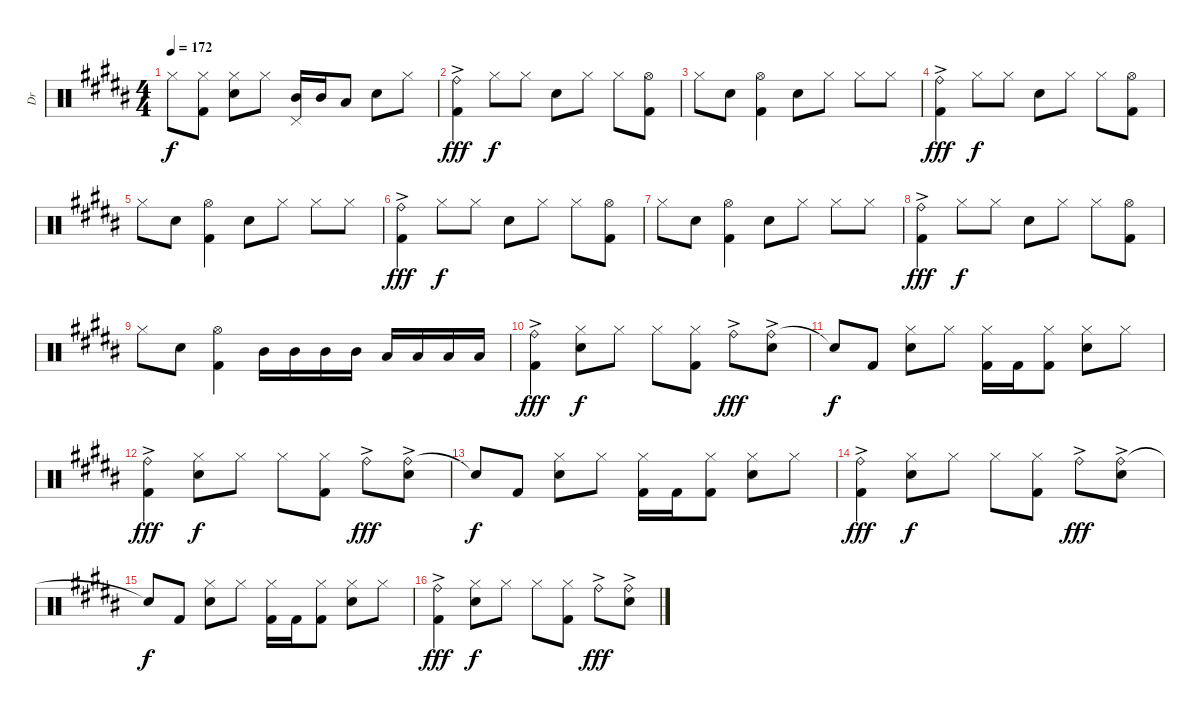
\track ("Dr" "Dr") {instrument percussion}
\staff {score}
\articulation defaults
\ts (4 4)
\tempo 172
\clef neutral
\ks b "Hi-Hat (closed)".8{dy f}
("Hi-Hat (closed)" "Kick (hit) 2").8 ("Hi-Hat (closed)" "Electric Snare (hit)").8 "Hi-Hat (closed)".8 ("Mid Tom (hit)" "Pedal Hi-Hat (hit)").16 "Mid Tom (hit)".16 "Low Tom (hit)".8 "Electric Snare (hit)".8 "Hi-Hat (closed)".8 |
("Ride (bell)"{ac} "Kick (hit) 2"{ac}).4{dy fff} "Hi-Hat (closed)".8{dy f} "Hi-Hat (closed)".8 "Electric Snare (hit)".8 "Hi-Hat (closed)".8 "Hi-Hat (closed)".8 ("Hi-Hat (open)" "Kick (hit) 2").8 |
"Hi-Hat (closed)".8 "Electric Snare (hit)".8 ("Hi-Hat (open)" "Kick (hit) 2").4 "Electric Snare (hit)".8 "Hi-Hat (closed)".8 "Hi-Hat (closed)".8 "Hi-Hat (closed)".8 |
("Ride (bell)"{ac} "Kick (hit) 2"{ac}).4{dy fff} "Hi-Hat (closed)".8{dy f} "Hi-Hat (closed)".8 "Electric Snare (hit)".8 "Hi-Hat (closed)".8 "Hi-Hat (closed)".8 ("Hi-Hat (open)" "Kick (hit) 2").8 |
"Hi-Hat (closed)".8 "Electric Snare (hit)".8 ("Hi-Hat (open)" "Kick (hit) 2").4 "Electric Snare (hit)".8 "Hi-Hat (closed)".8 "Hi-Hat (closed)".8 "Hi-Hat (closed)".8 |
("Ride (bell)"{ac} "Kick (hit) 2"{ac}).4{dy fff} "Hi-Hat (closed)".8{dy f} "Hi-Hat (closed)".8 "Electric Snare (hit)".8 "Hi-Hat (closed)".8 "Hi-Hat (closed)".8 ("Hi-Hat (open)" "Kick (hit) 2").8 |
"Hi-Hat (closed)".8 "Electric Snare (hit)".8 ("Hi-Hat (open)" "Kick (hit) 2").4 "Electric Snare (hit)".8 "Hi-Hat (closed)".8 "Hi-Hat (closed)".8 "Hi-Hat (closed)".8 |
("Ride (bell)"{ac} "Kick (hit) 2"{ac}).4{dy fff} "Hi-Hat (closed)".8{dy f} "Hi-Hat (closed)".8 "Electric Snare (hit)".8 "Hi-Hat (closed)".8 "Hi-Hat (closed)".8 ("Hi-Hat (open)" "Kick (hit) 2").8 |
"Hi-Hat (closed)".8 "Electric Snare (hit)".8 ("Hi-Hat (open)" "Kick (hit) 2").4 "Mid Tom (hit)".16 "Mid Tom (hit)".16 "Mid Tom (hit)".16 "Mid Tom (hit)".16 "Low Tom (hit)".16 "Low Tom (hit)".16 "Low Tom (hit)".16 "Low Tom (hit)".16 |
("Ride (bell)"{ac} "Kick (hit) 2"{ac}).4{dy fff} ("Hi-Hat (closed)" "Electric Snare (hit)").8{dy f} "Hi-Hat (closed)".8 "Hi-Hat (closed)".8 ("Hi-Hat (closed)" "Kick (hit) 2").8 "Ride (bell)"{ac}.8{dy fff} ("Ride (bell)"{ac} "Electric Snare (hit)").8 |
"Snare (hit)"{t}.8{dy f} "Kick (hit) 2".8 ("Hi-Hat (closed)" "Electric Snare (hit)").8 "Hi-Hat (closed)".8 ("Hi-Hat (closed)" "Kick (hit) 2").16 "Kick (hit) 2".16 ("Hi-Hat (closed)" "Kick (hit) 2").8 ("Hi-Hat (closed)" "Electric Snare (hit)").8 "Hi-Hat (closed)".8 |
("Ride (bell)"{ac} "Kick (hit) 2"{ac}).4{dy fff} ("Hi-Hat (closed)" "Electric Snare (hit)").8{dy f} "Hi-Hat (closed)".8 "Hi-Hat (closed)".8 ("Hi-Hat (closed)" "Kick (hit) 2").8 "Ride (bell)"{ac}.8{dy fff} ("Ride (bell)"{ac} "Electric Snare (hit)").8 |
"Snare (hit)"{t}.8{dy f} "Kick (hit) 2".8 ("Hi-Hat (closed)" "Electric Snare (hit)").8 "Hi-Hat (closed)".8 ("Hi-Hat (closed)" "Kick (hit) 2").16 "Kick (hit) 2".16 ("Hi-Hat (closed)" "Kick (hit) 2").8 ("Hi-Hat (closed)" "Electric Snare (hit)").8 "Hi-Hat (closed)".8 |
("Ride (bell)"{ac} "Kick (hit) 2"{ac}).4{dy fff} ("Hi-Hat (closed)" "Electric Snare (hit)").8{dy f} "Hi-Hat (closed)".8 "Hi-Hat (closed)".8 ("Hi-Hat (closed)" "Kick (hit) 2").8 "Ride (bell)"{ac}.8{dy fff} ("Ride (bell)"{ac} "Electric Snare (hit)").8 |
"Snare (hit)"{t}.8{dy f} "Kick (hit) 2".8 ("Hi-Hat (closed)" "Electric Snare (hit)").8 "Hi-Hat (closed)".8 ("Hi-Hat (closed)" "Kick (hit) 2").16 "Kick (hit) 2".16 ("Hi-Hat (closed)" "Kick (hit) 2").8 ("Hi-Hat (closed)" "Electric Snare (hit)").8 "Hi-Hat (closed)".8 |
("Ride (bell)"{ac} "Kick (hit) 2"{ac}).4{dy fff} ("Hi-Hat (closed)" "Electric Snare (hit)").8{dy f} "Hi-Hat (closed)".8 "Hi-Hat (closed)".8 ("Hi-Hat (closed)" "Kick (hit) 2").8 "Ride (bell)"{ac}.8{dy fff} ("Ride (bell)"{ac} "Electric Snare (hit)").8
